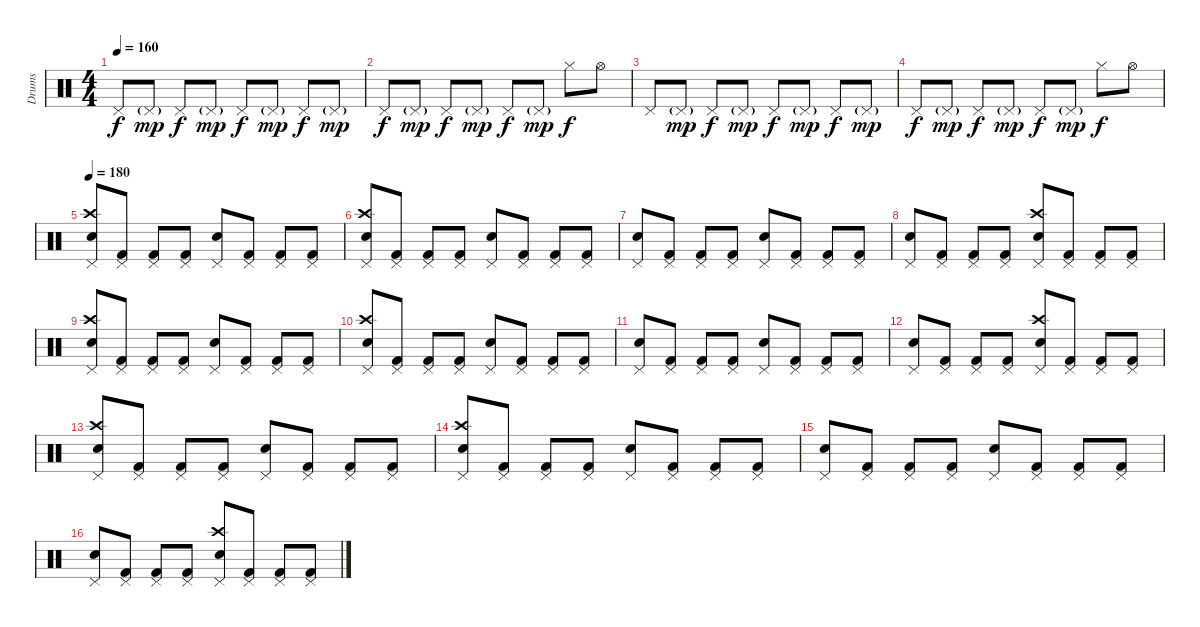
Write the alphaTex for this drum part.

\track ("Drums" "Drums") {instrument percussion}
\staff {score}
\articulation defaults
\ts (4 4)
\tempo 160
\clef neutral
\ks c "Pedal Hi-Hat (hit)".8{dy f} "Pedal Hi-Hat (hit)"{g}.8{dy mp} "Pedal Hi-Hat (hit)".8{dy f} "Pedal Hi-Hat (hit)"{g}.8{dy mp} "Pedal Hi-Hat (hit)".8{dy f} "Pedal Hi-Hat (hit)"{g}.8{dy mp} "Pedal Hi-Hat (hit)".8{dy f} "Pedal Hi-Hat (hit)"{g}.8{dy mp}
|
"Pedal Hi-Hat (hit)".8{dy f} "Pedal Hi-Hat (hit)"{g}.8{dy mp} "Pedal Hi-Hat (hit)".8{dy f} "Pedal Hi-Hat (hit)"{g}.8{dy mp} "Pedal Hi-Hat (hit)".8{dy f} "Pedal Hi-Hat (hit)"{g}.8{dy mp} "Hi-Hat (closed)".8{dy f} "Hi-Hat (open)".8 |
"Pedal Hi-Hat (hit)".8 "Pedal Hi-Hat (hit)"{g}.8{dy mp} "Pedal Hi-Hat (hit)".8{dy f} "Pedal Hi-Hat (hit)"{g}.8{dy mp} "Pedal Hi-Hat (hit)".8{dy f} "Pedal Hi-Hat (hit)"{g}.8{dy mp} "Pedal Hi-Hat (hit)".8{dy f} "Pedal Hi-Hat (hit)"{g}.8{dy mp} |
"Pedal Hi-Hat (hit)".8{dy f} "Pedal Hi-Hat (hit)"{g}.8{dy mp} "Pedal Hi-Hat (hit)".8{dy f} "Pedal Hi-Hat (hit)"{g}.8{dy mp} "Pedal Hi-Hat (hit)".8{dy f} "Pedal Hi-Hat (hit)"{g}.8{dy mp} "Hi-Hat (closed)".8{dy f} "Hi-Hat (open)".8 |
\tempo 180
("Pedal Hi-Hat (hit)" "Crash high (hit)" "Snare (hit) 2").8 ("Pedal Hi-Hat (hit)" "Kick (hit) 2").8 ("Pedal Hi-Hat (hit)" "Kick (hit) 2").8 ("Pedal Hi-Hat (hit)" "Kick (hit) 2").8 ("Pedal Hi-Hat (hit)" "Snare (hit) 2").8 ("Pedal Hi-Hat (hit)" "Kick (hit) 2").8 ("Pedal Hi-Hat (hit)" "Kick (hit) 2").8 ("Pedal Hi-Hat (hit)" "Kick (hit) 2").8 |
("Pedal Hi-Hat (hit)" "Crash high (hit)" "Snare (hit) 2").8 ("Pedal Hi-Hat (hit)" "Kick (hit) 2").8 ("Pedal Hi-Hat (hit)" "Kick (hit) 2").8 ("Pedal Hi-Hat (hit)" "Kick (hit) 2").8 ("Pedal Hi-Hat (hit)" "Snare (hit) 2").8 ("Pedal Hi-Hat (hit)" "Kick (hit) 2").8 ("Pedal Hi-Hat (hit)" "Kick (hit) 2").8 ("Pedal Hi-Hat (hit)" "Kick (hit) 2").8 |
("Pedal Hi-Hat (hit)" "Snare (hit) 2").8 ("Pedal Hi-Hat (hit)" "Kick (hit) 2").8 ("Pedal Hi-Hat (hit)" "Kick (hit) 2").8 ("Pedal Hi-Hat (hit)" "Kick (hit) 2").8 ("Pedal Hi-Hat (hit)" "Snare (hit) 2").8 ("Pedal Hi-Hat (hit)" "Kick (hit) 2").8 ("Pedal Hi-Hat (hit)" "Kick (hit) 2").8 ("Pedal Hi-Hat (hit)" "Kick (hit) 2").8 |
("Pedal Hi-Hat (hit)" "Snare (hit) 2").8 ("Pedal Hi-Hat (hit)" "Kick (hit) 2").8 ("Pedal Hi-Hat (hit)" "Kick (hit) 2").8 ("Pedal Hi-Hat (hit)" "Kick (hit) 2").8 ("Pedal Hi-Hat (hit)" "Crash high (hit)" "Snare (hit) 2").8 ("Pedal Hi-Hat (hit)" "Kick (hit) 2").8 ("Pedal Hi-Hat (hit)" "Kick (hit) 2").8 ("Pedal Hi-Hat (hit)" "Kick (hit) 2").8 |
("Pedal Hi-Hat (hit)" "Crash high (hit)" "Snare (hit) 2").8 ("Pedal Hi-Hat (hit)" "Kick (hit) 2").8 ("Pedal Hi-Hat (hit)" "Kick (hit) 2").8 ("Pedal Hi-Hat (hit)" "Kick (hit) 2").8 ("Pedal Hi-Hat (hit)" "Snare (hit) 2").8 ("Pedal Hi-Hat (hit)" "Kick (hit) 2").8 ("Pedal Hi-Hat (hit)" "Kick (hit) 2").8 ("Pedal Hi-Hat (hit)" "Kick (hit) 2").8 |
("Pedal Hi-Hat (hit)" "Crash high (hit)" "Snare (hit) 2").8 ("Pedal Hi-Hat (hit)" "Kick (hit) 2").8 ("Pedal Hi-Hat (hit)" "Kick (hit) 2").8 ("Pedal Hi-Hat (hit)" "Kick (hit) 2").8 ("Pedal Hi-Hat (hit)" "Snare (hit) 2").8 ("Pedal Hi-Hat (hit)" "Kick (hit) 2").8 ("Pedal Hi-Hat (hit)" "Kick (hit) 2").8 ("Pedal Hi-Hat (hit)" "Kick (hit) 2").8 |
("Pedal Hi-Hat (hit)" "Snare (hit) 2").8 ("Pedal Hi-Hat (hit)" "Kick (hit) 2").8 ("Pedal Hi-Hat (hit)" "Kick (hit) 2").8 ("Pedal Hi-Hat (hit)" "Kick (hit) 2").8 ("Pedal Hi-Hat (hit)" "Snare (hit) 2").8 ("Pedal Hi-Hat (hit)" "Kick (hit) 2").8 ("Pedal Hi-Hat (hit)" "Kick (hit) 2").8 ("Pedal Hi-Hat (hit)" "Kick (hit) 2").8 |
("Pedal Hi-Hat (hit)" "Snare (hit) 2").8 ("Pedal Hi-Hat (hit)" "Kick (hit) 2").8 ("Pedal Hi-Hat (hit)" "Kick (hit) 2").8 ("Pedal Hi-Hat (hit)" "Kick (hit) 2").8 ("Pedal Hi-Hat (hit)" "Crash high (hit)" "Snare (hit) 2").8 ("Pedal Hi-Hat (hit)" "Kick (hit) 2").8 ("Pedal Hi-Hat (hit)" "Kick (hit) 2").8 ("Pedal Hi-Hat (hit)" "Kick (hit) 2").8 |
("Pedal Hi-Hat (hit)" "Crash high (hit)" "Snare (hit) 2").8 ("Pedal Hi-Hat (hit)" "Kick (hit) 2").8 ("Pedal Hi-Hat (hit)" "Kick (hit) 2").8 ("Pedal Hi-Hat (hit)" "Kick (hit) 2").8 ("Pedal Hi-Hat (hit)" "Snare (hit) 2").8 ("Pedal Hi-Hat (hit)" "Kick (hit) 2").8 ("Pedal Hi-Hat (hit)" "Kick (hit) 2").8 ("Pedal Hi-Hat (hit)" "Kick (hit) 2").8 |
("Pedal Hi-Hat (hit)" "Crash high (hit)" "Snare (hit) 2").8 ("Pedal Hi-Hat (hit)" "Kick (hit) 2").8 ("Pedal Hi-Hat (hit)" "Kick (hit) 2").8 ("Pedal Hi-Hat (hit)" "Kick (hit) 2").8 ("Pedal Hi-Hat (hit)" "Snare (hit) 2").8 ("Pedal Hi-Hat (hit)" "Kick (hit) 2").8 ("Pedal Hi-Hat (hit)" "Kick (hit) 2").8 ("Pedal Hi-Hat (hit)" "Kick (hit) 2").8 |
("Pedal Hi-Hat (hit)" "Snare (hit) 2").8 ("Pedal Hi-Hat (hit)" "Kick (hit) 2").8 ("Pedal Hi-Hat (hit)" "Kick (hit) 2").8 ("Pedal Hi-Hat (hit)" "Kick (hit) 2").8 ("Pedal Hi-Hat (hit)" "Snare (hit) 2").8 ("Pedal Hi-Hat (hit)" "Kick (hit) 2").8 ("Pedal Hi-Hat (hit)" "Kick (hit) 2").8 ("Pedal Hi-Hat (hit)" "Kick (hit) 2").8 |
("Pedal Hi-Hat (hit)" "Snare (hit) 2").8 ("Pedal Hi-Hat (hit)" "Kick (hit) 2").8 ("Pedal Hi-Hat (hit)" "Kick (hit) 2").8 ("Pedal Hi-Hat (hit)" "Kick (hit) 2").8 ("Pedal Hi-Hat (hit)" "Crash high (hit)" "Snare (hit) 2").8 ("Pedal Hi-Hat (hit)" "Kick (hit) 2").8 ("Pedal Hi-Hat (hit)" "Kick (hit) 2").8 ("Pedal Hi-Hat (hit)" "Kick (hit) 2").8
